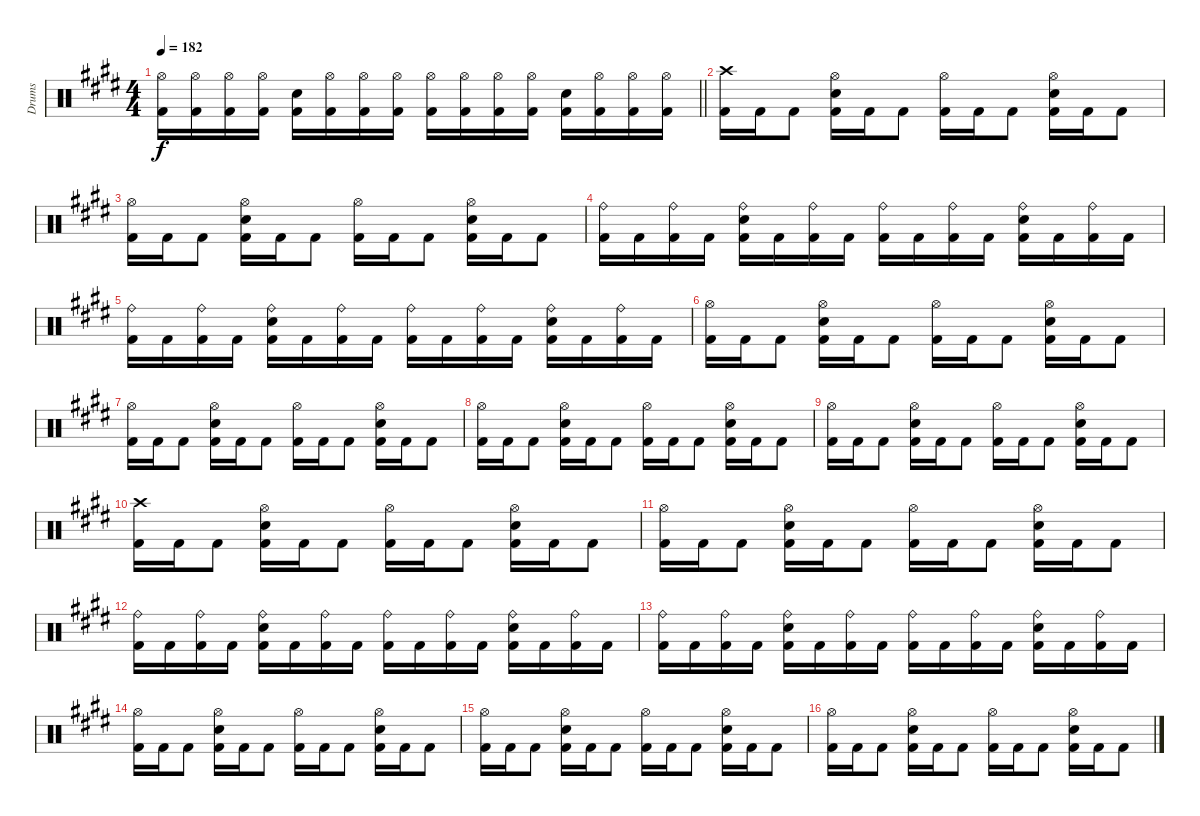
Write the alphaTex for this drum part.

\track ("Drums" "Drums") {instrument percussion}
\staff {score}
\articulation defaults
\ts (4 4)
\tempo 182
\clef neutral
\barLineRight lightlight
\ks c#minor
("Hi-Hat (open)" "Kick (hit) 2").16{dy f} ("Hi-Hat (open)" "Kick (hit) 2").16 ("Hi-Hat (open)" "Kick (hit) 2").16 ("Hi-Hat (open)" "Kick (hit) 2").16 ("Snare (hit) 2" "Kick (hit) 2").16 ("Hi-Hat (open)" "Kick (hit) 2").16 ("Hi-Hat (open)" "Kick (hit) 2").16 ("Hi-Hat (open)" "Kick (hit) 2").16 ("Hi-Hat (open)" "Kick (hit) 2").16 ("Hi-Hat (open)" "Kick (hit) 2").16 ("Hi-Hat (open)" "Kick (hit) 2").16 ("Hi-Hat (open)" "Kick (hit) 2").16 ("Snare (hit) 2" "Kick (hit) 2").16 ("Hi-Hat (open)" "Kick (hit) 2").16 ("Hi-Hat (open)" "Kick (hit) 2").16 ("Hi-Hat (open)" "Kick (hit) 2").16 |
("Crash high (hit)" "Kick (hit) 2").16 "Kick (hit) 2".16 "Kick (hit) 2".8 ("Hi-Hat (open)" "Snare (hit) 2" "Kick (hit) 2").16 "Kick (hit) 2".16 "Kick (hit) 2".8 ("Hi-Hat (open)" "Kick (hit) 2").16 "Kick (hit) 2".16 "Kick (hit) 2".8 ("Hi-Hat (open)" "Snare (hit) 2" "Kick (hit) 2").16 "Kick (hit) 2".16 "Kick (hit) 2".8 |
("Hi-Hat (open)" "Kick (hit) 2").16 "Kick (hit) 2".16 "Kick (hit) 2".8 ("Hi-Hat (open)" "Snare (hit) 2" "Kick (hit) 2").16 "Kick (hit) 2".16 "Kick (hit) 2".8 ("Hi-Hat (open)" "Kick (hit) 2").16 "Kick (hit) 2".16 "Kick (hit) 2".8 ("Hi-Hat (open)" "Snare (hit) 2" "Kick (hit) 2").16 "Kick (hit) 2".16 "Kick (hit) 2".8 |
("Ride (bell)" "Kick (hit) 2").16 "Kick (hit) 2".16 ("Ride (bell)" "Kick (hit) 2").16 "Kick (hit) 2".16 ("Ride (bell)" "Snare (hit) 2" "Kick (hit) 2").16 "Kick (hit) 2".16 ("Ride (bell)" "Kick (hit) 2").16 "Kick (hit) 2".16 ("Ride (bell)" "Kick (hit) 2").16 "Kick (hit) 2".16 ("Ride (bell)" "Kick (hit) 2").16 "Kick (hit) 2".16 ("Ride (bell)" "Snare (hit) 2" "Kick (hit) 2").16 "Kick (hit) 2".16 ("Ride (bell)" "Kick (hit) 2").16 "Kick (hit) 2".16 |
("Ride (bell)" "Kick (hit) 2").16 "Kick (hit) 2".16 ("Ride (bell)" "Kick (hit) 2").16 "Kick (hit) 2".16 ("Ride (bell)" "Snare (hit) 2" "Kick (hit) 2").16 "Kick (hit) 2".16 ("Ride (bell)" "Kick (hit) 2").16 "Kick (hit) 2".16 ("Ride (bell)" "Kick (hit) 2").16 "Kick (hit) 2".16 ("Ride (bell)" "Kick (hit) 2").16 "Kick (hit) 2".16 ("Ride (bell)" "Snare (hit) 2" "Kick (hit) 2").16 "Kick (hit) 2".16 ("Ride (bell)" "Kick (hit) 2").16 "Kick (hit) 2".16 |
("Hi-Hat (open)" "Kick (hit) 2").16 "Kick (hit) 2".16 "Kick (hit) 2".8 ("Hi-Hat (open)" "Snare (hit) 2" "Kick (hit) 2").16 "Kick (hit) 2".16 "Kick (hit) 2".8 ("Hi-Hat (open)" "Kick (hit) 2").16 "Kick (hit) 2".16 "Kick (hit) 2".8 ("Hi-Hat (open)" "Snare (hit) 2" "Kick (hit) 2").16 "Kick (hit) 2".16 "Kick (hit) 2".8 |
("Hi-Hat (open)" "Kick (hit) 2").16 "Kick (hit) 2".16 "Kick (hit) 2".8 ("Hi-Hat (open)" "Snare (hit) 2" "Kick (hit) 2").16 "Kick (hit) 2".16 "Kick (hit) 2".8 ("Hi-Hat (open)" "Kick (hit) 2").16 "Kick (hit) 2".16 "Kick (hit) 2".8 ("Hi-Hat (open)" "Snare (hit) 2" "Kick (hit) 2").16 "Kick (hit) 2".16 "Kick (hit) 2".8 |
("Hi-Hat (open)" "Kick (hit) 2").16 "Kick (hit) 2".16 "Kick (hit) 2".8 ("Hi-Hat (open)" "Snare (hit) 2" "Kick (hit) 2").16 "Kick (hit) 2".16 "Kick (hit) 2".8 ("Hi-Hat (open)" "Kick (hit) 2").16 "Kick (hit) 2".16 "Kick (hit) 2".8 ("Hi-Hat (open)" "Snare (hit) 2" "Kick (hit) 2").16 "Kick (hit) 2".16 "Kick (hit) 2".8 |
("Hi-Hat (open)" "Kick (hit) 2").16 "Kick (hit) 2".16 "Kick (hit) 2".8 ("Hi-Hat (open)" "Snare (hit) 2" "Kick (hit) 2").16 "Kick (hit) 2".16 "Kick (hit) 2".8 ("Hi-Hat (open)" "Kick (hit) 2").16 "Kick (hit) 2".16 "Kick (hit) 2".8 ("Hi-Hat (open)" "Snare (hit) 2" "Kick (hit) 2").16 "Kick (hit) 2".16 "Kick (hit) 2".8 |
("Crash high (hit)" "Kick (hit) 2").16 "Kick (hit) 2".16 "Kick (hit) 2".8 ("Hi-Hat (open)" "Snare (hit) 2" "Kick (hit) 2").16 "Kick (hit) 2".16 "Kick (hit) 2".8 ("Hi-Hat (open)" "Kick (hit) 2").16 "Kick (hit) 2".16 "Kick (hit) 2".8 ("Hi-Hat (open)" "Snare (hit) 2" "Kick (hit) 2").16 "Kick (hit) 2".16 "Kick (hit) 2".8 |
("Hi-Hat (open)" "Kick (hit) 2").16 "Kick (hit) 2".16 "Kick (hit) 2".8 ("Hi-Hat (open)" "Snare (hit) 2" "Kick (hit) 2").16 "Kick (hit) 2".16 "Kick (hit) 2".8 ("Hi-Hat (open)" "Kick (hit) 2").16 "Kick (hit) 2".16 "Kick (hit) 2".8 ("Hi-Hat (open)" "Snare (hit) 2" "Kick (hit) 2").16 "Kick (hit) 2".16 "Kick (hit) 2".8 |
("Ride (bell)" "Kick (hit) 2").16 "Kick (hit) 2".16 ("Ride (bell)" "Kick (hit) 2").16 "Kick (hit) 2".16 ("Ride (bell)" "Snare (hit) 2" "Kick (hit) 2").16 "Kick (hit) 2".16 ("Ride (bell)" "Kick (hit) 2").16 "Kick (hit) 2".16 ("Ride (bell)" "Kick (hit) 2").16 "Kick (hit) 2".16 ("Ride (bell)" "Kick (hit) 2").16 "Kick (hit) 2".16 ("Ride (bell)" "Snare (hit) 2" "Kick (hit) 2").16 "Kick (hit) 2".16 ("Ride (bell)" "Kick (hit) 2").16 "Kick (hit) 2".16 |
("Ride (bell)" "Kick (hit) 2").16 "Kick (hit) 2".16 ("Ride (bell)" "Kick (hit) 2").16 "Kick (hit) 2".16 ("Ride (bell)" "Snare (hit) 2" "Kick (hit) 2").16 "Kick (hit) 2".16 ("Ride (bell)" "Kick (hit) 2").16 "Kick (hit) 2".16 ("Ride (bell)" "Kick (hit) 2").16 "Kick (hit) 2".16 ("Ride (bell)" "Kick (hit) 2").16 "Kick (hit) 2".16 ("Ride (bell)" "Snare (hit) 2" "Kick (hit) 2").16 "Kick (hit) 2".16 ("Ride (bell)" "Kick (hit) 2").16 "Kick (hit) 2".16 |
("Hi-Hat (open)" "Kick (hit) 2").16 "Kick (hit) 2".16 "Kick (hit) 2".8 ("Hi-Hat (open)" "Snare (hit) 2" "Kick (hit) 2").16 "Kick (hit) 2".16 "Kick (hit) 2".8 ("Hi-Hat (open)" "Kick (hit) 2").16 "Kick (hit) 2".16 "Kick (hit) 2".8 ("Hi-Hat (open)" "Snare (hit) 2" "Kick (hit) 2").16 "Kick (hit) 2".16 "Kick (hit) 2".8 |
("Hi-Hat (open)" "Kick (hit) 2").16 "Kick (hit) 2".16 "Kick (hit) 2".8 ("Hi-Hat (open)" "Snare (hit) 2" "Kick (hit) 2").16 "Kick (hit) 2".16 "Kick (hit) 2".8 ("Hi-Hat (open)" "Kick (hit) 2").16 "Kick (hit) 2".16 "Kick (hit) 2".8 ("Hi-Hat (open)" "Snare (hit) 2" "Kick (hit) 2").16 "Kick (hit) 2".16 "Kick (hit) 2".8 |
("Hi-Hat (open)" "Kick (hit) 2").16 "Kick (hit) 2".16 "Kick (hit) 2".8 ("Hi-Hat (open)" "Snare (hit) 2" "Kick (hit) 2").16 "Kick (hit) 2".16 "Kick (hit) 2".8 ("Hi-Hat (open)" "Kick (hit) 2").16 "Kick (hit) 2".16 "Kick (hit) 2".8 ("Hi-Hat (open)" "Snare (hit) 2" "Kick (hit) 2").16 "Kick (hit) 2".16 "Kick (hit) 2".8
